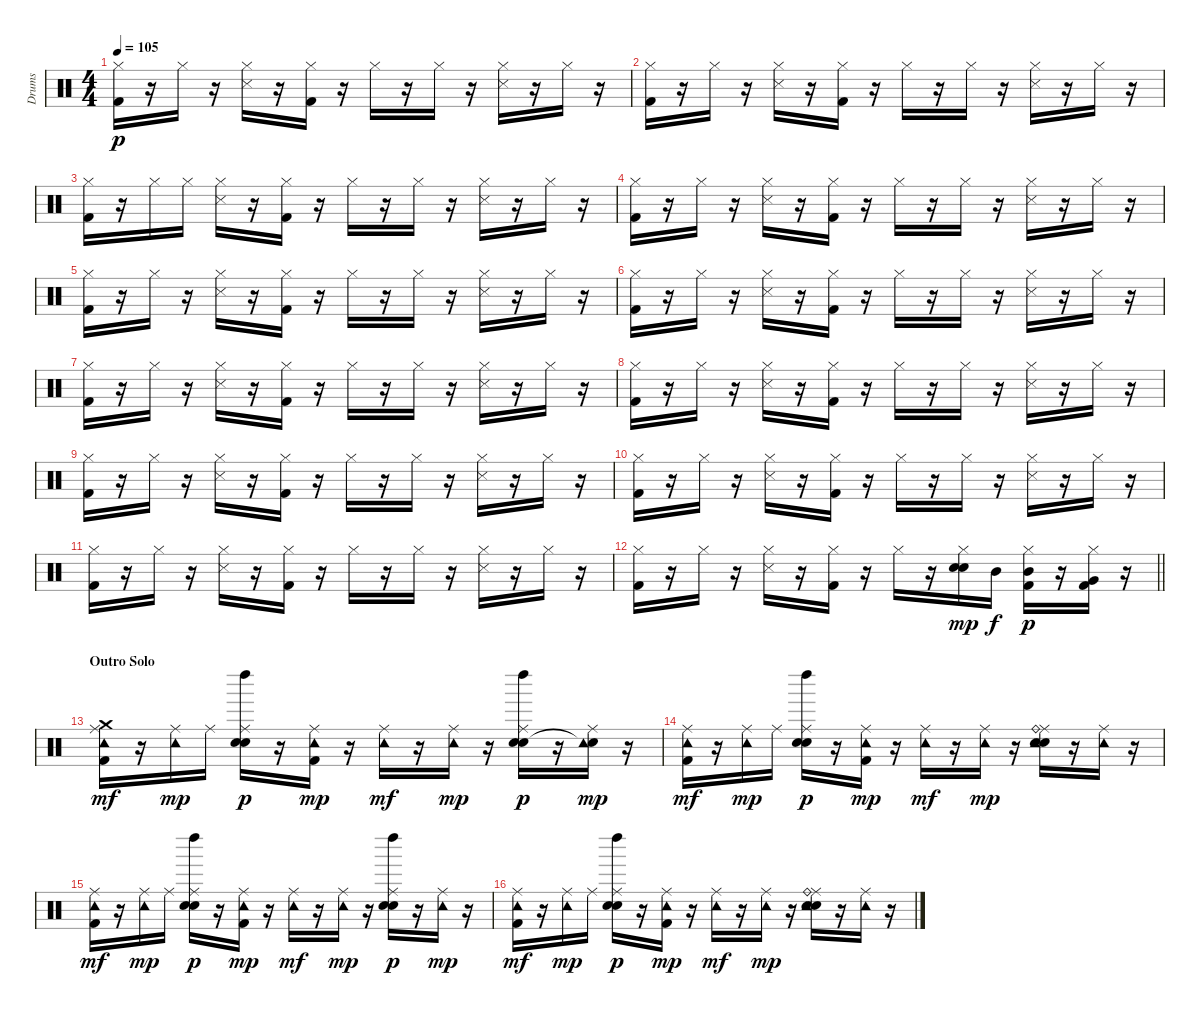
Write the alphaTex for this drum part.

\track ("Drums" "Drums") {instrument percussion}
\staff {score}
\articulation defaults
\ts (4 4)
\tempo 105
\clef neutral
\ks c
("Hi-Hat (closed)" "Kick (hit) 2").16{dy p} r.16 "Hi-Hat (closed)".16 r.16 ("Hi-Hat (closed)" "Snare (side stick) 3").16 r.16 ("Hi-Hat (closed)" "Kick (hit) 2").16 r.16 "Hi-Hat (closed)".16 r.16 "Hi-Hat (closed)".16 r.16 ("Hi-Hat (closed)" "Snare (side stick) 3").16 r.16 "Hi-Hat (closed)".16 r.16 |
("Hi-Hat (closed)" "Kick (hit) 2").16 r.16 "Hi-Hat (closed)".16 r.16 ("Hi-Hat (closed)" "Snare (side stick) 3").16 r.16 ("Hi-Hat (closed)" "Kick (hit) 2").16 r.16 "Hi-Hat (closed)".16 r.16 "Hi-Hat (closed)".16 r.16 ("Hi-Hat (closed)" "Snare (side stick) 3").16 r.16 "Hi-Hat (closed)".16 r.16 |
("Hi-Hat (closed)" "Kick (hit) 2").16 r.16 "Hi-Hat (closed)".16 "Hi-Hat (closed)".16 ("Hi-Hat (closed)" "Snare (side stick) 3").16 r.16 ("Hi-Hat (closed)" "Kick (hit) 2").16 r.16 "Hi-Hat (closed)".16 r.16 "Hi-Hat (closed)".16 r.16 ("Hi-Hat (closed)" "Snare (side stick) 3").16 r.16 "Hi-Hat (closed)".16 r.16 |
("Hi-Hat (closed)" "Kick (hit) 2").16 r.16 "Hi-Hat (closed)".16 r.16 ("Hi-Hat (closed)" "Snare (side stick) 3").16 r.16 ("Hi-Hat (closed)" "Kick (hit) 2").16 r.16 "Hi-Hat (closed)".16 r.16 "Hi-Hat (closed)".16 r.16 ("Hi-Hat (closed)" "Snare (side stick) 3").16 r.16 "Hi-Hat (closed)".16 r.16 |
("Hi-Hat (closed)" "Kick (hit) 2").16 r.16 "Hi-Hat (closed)".16 r.16 ("Hi-Hat (closed)" "Snare (side stick) 3").16 r.16 ("Hi-Hat (closed)" "Kick (hit) 2").16 r.16 "Hi-Hat (closed)".16 r.16 "Hi-Hat (closed)".16 r.16 ("Hi-Hat (closed)" "Snare (side stick) 3").16 r.16 "Hi-Hat (closed)".16 r.16 |
("Hi-Hat (closed)" "Kick (hit) 2").16 r.16 "Hi-Hat (closed)".16 r.16 ("Hi-Hat (closed)" "Snare (side stick) 3").16 r.16 ("Hi-Hat (closed)" "Kick (hit) 2").16 r.16 "Hi-Hat (closed)".16 r.16 "Hi-Hat (closed)".16 r.16 ("Hi-Hat (closed)" "Snare (side stick) 3").16 r.16 "Hi-Hat (closed)".16 r.16 |
("Hi-Hat (closed)" "Kick (hit) 2").16 r.16 "Hi-Hat (closed)".16 r.16 ("Hi-Hat (closed)" "Snare (side stick) 3").16 r.16 ("Hi-Hat (closed)" "Kick (hit) 2").16 r.16 "Hi-Hat (closed)".16 r.16 "Hi-Hat (closed)".16 r.16 ("Hi-Hat (closed)" "Snare (side stick) 3").16 r.16 "Hi-Hat (closed)".16 r.16 |
("Hi-Hat (closed)" "Kick (hit) 2").16 r.16 "Hi-Hat (closed)".16 r.16 ("Hi-Hat (closed)" "Snare (side stick) 3").16 r.16 ("Hi-Hat (closed)" "Kick (hit) 2").16 r.16 "Hi-Hat (closed)".16 r.16 "Hi-Hat (closed)".16 r.16 ("Hi-Hat (closed)" "Snare (side stick) 3").16 r.16 "Hi-Hat (closed)".16 r.16 |
("Hi-Hat (closed)" "Kick (hit) 2").16 r.16 "Hi-Hat (closed)".16 r.16 ("Hi-Hat (closed)" "Snare (side stick) 3").16 r.16 ("Hi-Hat (closed)" "Kick (hit) 2").16 r.16 "Hi-Hat (closed)".16 r.16 "Hi-Hat (closed)".16 r.16 ("Hi-Hat (closed)" "Snare (side stick) 3").16 r.16 "Hi-Hat (closed)".16 r.16 |
("Hi-Hat (closed)" "Kick (hit) 2").16 r.16 "Hi-Hat (closed)".16 r.16 ("Hi-Hat (closed)" "Snare (side stick) 3").16 r.16 ("Hi-Hat (closed)" "Kick (hit) 2").16 r.16 "Hi-Hat (closed)".16 r.16 "Hi-Hat (closed)".16 r.16 ("Hi-Hat (closed)" "Snare (side stick) 3").16 r.16 "Hi-Hat (closed)".16 r.16 |
("Hi-Hat (closed)" "Kick (hit) 2").16 r.16 "Hi-Hat (closed)".16 r.16 ("Hi-Hat (closed)" "Snare (side stick) 3").16 r.16 ("Hi-Hat (closed)" "Kick (hit) 2").16 r.16 "Hi-Hat (closed)".16 r.16 "Hi-Hat (closed)".16 r.16 ("Hi-Hat (closed)" "Snare (side stick) 3").16 r.16 "Hi-Hat (closed)".16 r.16 |
\barLineRight lightlight
("Hi-Hat (closed)" "Kick (hit) 2").16 r.16 "Hi-Hat (closed)".16 r.16 ("Hi-Hat (closed)" "Snare (side stick) 3").16 r.16 ("Hi-Hat (closed)" "Kick (hit) 2").16 r.16 "Hi-Hat (closed)".16 r.16 ("Hi-Hat (closed)" "Electric Snare (hit)" "Snare (hit) 2").16{dy mp} "Mid Tom (hit)".16{dy f} ("Hi-Hat (closed)" "Mid Tom (hit)" "Kick (hit) 2").16{dy p} r.16 ("Hi-Hat (closed)" "Very Low Tom (hit)" "Kick (hit) 2").16 r.16 |
\section ("" "Outro Solo")
("Ride (middle)" "Crash medium (hit)" "Tambourine (hit)" "Kick (hit) 2").16{dy mf} r.16 ("Ride (middle)" "Tambourine (hit)").16{dy mp} "Ride (middle)".16 ("Ride (middle)" "Electric Snare (hit)" "Snare (hit) 2" "Left Maraca (hit)").16{dy p} r.16 ("Ride (middle)" "Tambourine (hit)" "Kick (hit) 2").16{dy mp} r.16 ("Ride (middle)" "Tambourine (hit)").16{dy mf} r.16 ("Ride (middle)" "Tambourine (hit)").16{dy mp} r.16 ("Ride (middle)" "Electric Snare (hit)" "Snare (hit) 2" "Left Maraca (hit)").16{dy p} r.16 ("Ride (middle)" "Snare (hit)"{t} "Tambourine (hit)").16{dy mp} r.16 |
("Ride (middle)" "Tambourine (hit)" "Kick (hit) 2").16{dy mf} r.16 ("Ride (middle)" "Tambourine (hit)").16{dy mp} "Ride (middle)".16 ("Ride (middle)" "Electric Snare (hit)" "Snare (hit) 2" "Left Maraca (hit)").16{dy p} r.16 ("Ride (middle)" "Tambourine (hit)" "Kick (hit) 2").16{dy mp} r.16 ("Ride (middle)" "Tambourine (hit)").16{dy mf} r.16 ("Ride (middle)" "Tambourine (hit)").16{dy mp} r.16 ("Ride (middle)" "Ride (bell)" "Electric Snare (hit)" "Snare (hit) 2" "Tambourine (hit)").16 r.16 ("Ride (middle)" "Tambourine (hit)").16 r.16 |
("Ride (middle)" "Tambourine (hit)" "Kick (hit) 2").16{dy mf} r.16 ("Ride (middle)" "Tambourine (hit)").16{dy mp} "Ride (middle)".16 ("Ride (middle)" "Electric Snare (hit)" "Snare (hit) 2" "Left Maraca (hit)").16{dy p} r.16 ("Ride (middle)" "Tambourine (hit)" "Kick (hit) 2").16{dy mp} r.16 ("Ride (middle)" "Tambourine (hit)").16{dy mf} r.16 ("Ride (middle)" "Tambourine (hit)").16{dy mp} r.16 ("Ride (middle)" "Electric Snare (hit)" "Snare (hit) 2" "Left Maraca (hit)").16{dy p} r.16 ("Ride (middle)" "Tambourine (hit)").16{dy mp} r.16 |
("Ride (middle)" "Tambourine (hit)" "Kick (hit) 2").16{dy mf} r.16 ("Ride (middle)" "Tambourine (hit)").16{dy mp} "Ride (middle)".16 ("Ride (middle)" "Electric Snare (hit)" "Snare (hit) 2" "Left Maraca (hit)").16{dy p} r.16 ("Ride (middle)" "Tambourine (hit)" "Kick (hit) 2").16{dy mp} r.16 ("Ride (middle)" "Tambourine (hit)").16{dy mf} r.16 ("Ride (middle)" "Tambourine (hit)").16{dy mp} r.16 ("Ride (middle)" "Ride (bell)" "Electric Snare (hit)" "Snare (hit) 2" "Tambourine (hit)").16 r.16 ("Ride (middle)" "Tambourine (hit)").16 r.16
